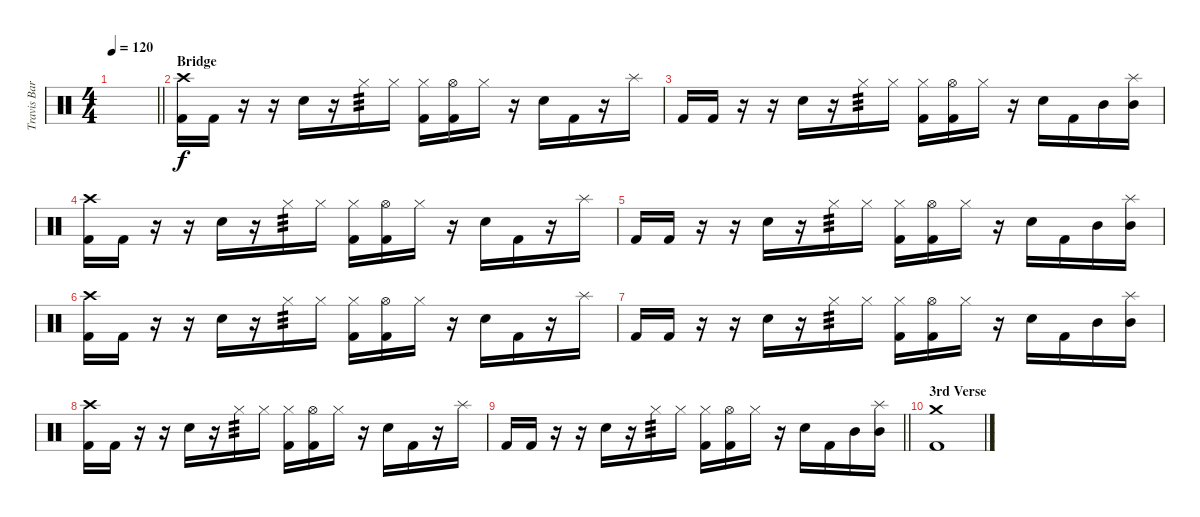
\track ("Travis Barker - Drums" "Travis Bar") {instrument percussion}
\staff {score}
\articulation defaults
\ts (4 4)
\tempo 120
\clef neutral
\barLineRight lightlight
\ks c
|
\section ("" "Bridge")
("Crash high (hit)" "Kick (hit) 2").16 "Kick (hit) 2".16 r.16 r.16 "Electric Snare (hit)".16 r.16 "Hi-Hat (closed)".16{tp 3} "Hi-Hat (closed)".16 ("Hi-Hat (closed)" "Kick (hit) 2").16 ("Hi-Hat (open)" "Kick (hit) 2").16 "Hi-Hat (closed)".16 r.16 "Electric Snare (hit)".16 "Kick (hit) 2".16 r.16 "Splash (hit)".16 |
"Kick (hit) 2".16 "Kick (hit) 2".16 r.16 r.16 "Electric Snare (hit)".16 r.16 "Hi-Hat (closed)".16{tp 3} "Hi-Hat (closed)".16 ("Hi-Hat (closed)" "Kick (hit) 2").16 ("Hi-Hat (open)" "Kick (hit) 2").16 "Hi-Hat (closed)".16 r.16 "Electric Snare (hit)".16 "Kick (hit) 2".16 "Mid Tom (hit)".16 ("Splash (hit)" "Mid Tom (hit)").16 |
("Crash high (hit)" "Kick (hit) 2").16 "Kick (hit) 2".16 r.16 r.16 "Electric Snare (hit)".16 r.16 "Hi-Hat (closed)".16{tp 3} "Hi-Hat (closed)".16 ("Hi-Hat (closed)" "Kick (hit) 2").16 ("Hi-Hat (open)" "Kick (hit) 2").16 "Hi-Hat (closed)".16 r.16 "Electric Snare (hit)".16 "Kick (hit) 2".16 r.16 "Splash (hit)".16 |
"Kick (hit) 2".16 "Kick (hit) 2".16 r.16 r.16 "Electric Snare (hit)".16 r.16 "Hi-Hat (closed)".16{tp 3} "Hi-Hat (closed)".16 ("Hi-Hat (closed)" "Kick (hit) 2").16 ("Hi-Hat (open)" "Kick (hit) 2").16 "Hi-Hat (closed)".16 r.16 "Electric Snare (hit)".16 "Kick (hit) 2".16 "Mid Tom (hit)".16 ("Splash (hit)" "Mid Tom (hit)").16 |
("Crash high (hit)" "Kick (hit) 2").16 "Kick (hit) 2".16 r.16 r.16 "Electric Snare (hit)".16 r.16 "Hi-Hat (closed)".16{tp 3} "Hi-Hat (closed)".16 ("Hi-Hat (closed)" "Kick (hit) 2").16 ("Hi-Hat (open)" "Kick (hit) 2").16 "Hi-Hat (closed)".16 r.16 "Electric Snare (hit)".16 "Kick (hit) 2".16 r.16 "Splash (hit)".16 |
"Kick (hit) 2".16 "Kick (hit) 2".16 r.16 r.16 "Electric Snare (hit)".16 r.16 "Hi-Hat (closed)".16{tp 3} "Hi-Hat (closed)".16 ("Hi-Hat (closed)" "Kick (hit) 2").16 ("Hi-Hat (open)" "Kick (hit) 2").16 "Hi-Hat (closed)".16 r.16 "Electric Snare (hit)".16 "Kick (hit) 2".16 "Mid Tom (hit)".16 ("Splash (hit)" "Mid Tom (hit)").16 |
("Crash high (hit)" "Kick (hit) 2").16 "Kick (hit) 2".16 r.16 r.16 "Electric Snare (hit)".16 r.16 "Hi-Hat (closed)".16{tp 3} "Hi-Hat (closed)".16 ("Hi-Hat (closed)" "Kick (hit) 2").16 ("Hi-Hat (open)" "Kick (hit) 2").16 "Hi-Hat (closed)".16 r.16 "Electric Snare (hit)".16 "Kick (hit) 2".16 r.16 "Splash (hit)".16 |
\barLineRight lightlight "Kick (hit) 2".16 "Kick (hit) 2".16
r.16 r.16 "Electric Snare (hit)".16 r.16 "Hi-Hat (closed)".16{tp 3} "Hi-Hat (closed)".16 ("Hi-Hat (closed)" "Kick (hit) 2").16 ("Hi-Hat (open)" "Kick (hit) 2").16 "Hi-Hat (closed)".16 r.16 "Electric Snare (hit)".16 "Kick (hit) 2".16 "Mid Tom (hit)".16 ("Splash (hit)" "Mid Tom (hit)").16 |
\section ("" "3rd Verse")
("Crash medium (hit)" "Kick (hit) 2").1
